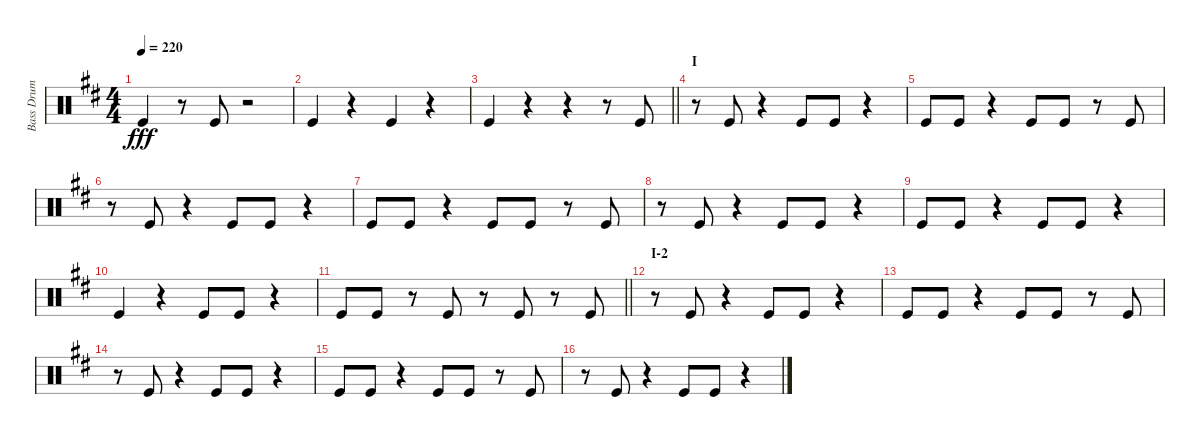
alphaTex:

\track ("Bass Drum" "Bass Drum") {instrument percussion}
\staff {score}
\articulation defaults
\ts (4 4)
\tempo 220
\clef neutral
\ks d "Kick (hit)".4{dy fff}
r.8 "Kick (hit)".8 r.2 |
"Kick (hit)".4 r.4 "Kick (hit)".4 r.4 |
\barLineRight lightlight "Kick (hit)".4
r.4 r.4 r.8 "Kick (hit)".8 |
\section ("" "I")
r.8 "Kick (hit)".8 r.4 "Kick (hit)".8 "Kick (hit)".8 r.4 |
"Kick (hit)".8 "Kick (hit)".8 r.4 "Kick (hit)".8 "Kick (hit)".8 r.8 "Kick (hit)".8 |
r.8 "Kick (hit)".8 r.4 "Kick (hit)".8 "Kick (hit)".8 r.4 |
"Kick (hit)".8 "Kick (hit)".8 r.4 "Kick (hit)".8 "Kick (hit)".8 r.8 "Kick (hit)".8 |
r.8 "Kick (hit)".8 r.4 "Kick (hit)".8 "Kick (hit)".8 r.4 |
"Kick (hit)".8 "Kick (hit)".8 r.4 "Kick (hit)".8 "Kick (hit)".8 r.4 |
"Kick (hit)".4 r.4 "Kick (hit)".8 "Kick (hit)".8 r.4 |
\barLineRight lightlight "Kick (hit)".8 "Kick (hit)".8
r.8 "Kick (hit)".8 r.8 "Kick (hit)".8 r.8 "Kick (hit)".8 |
\section ("" "I-2")
r.8 "Kick (hit)".8 r.4 "Kick (hit)".8 "Kick (hit)".8 r.4 |
"Kick (hit)".8 "Kick (hit)".8 r.4 "Kick (hit)".8 "Kick (hit)".8 r.8 "Kick (hit)".8 |
r.8 "Kick (hit)".8 r.4 "Kick (hit)".8 "Kick (hit)".8 r.4 |
"Kick (hit)".8 "Kick (hit)".8 r.4 "Kick (hit)".8 "Kick (hit)".8 r.8 "Kick (hit)".8 |
r.8 "Kick (hit)".8 r.4 "Kick (hit)".8 "Kick (hit)".8 r.4
